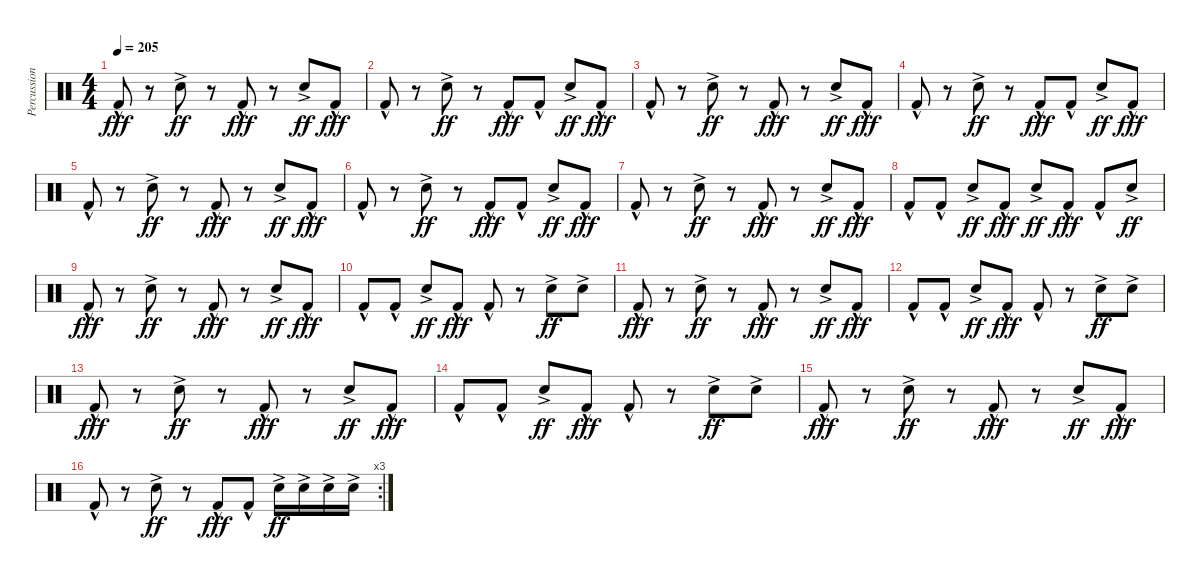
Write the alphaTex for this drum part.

\track ("Percussion" "Percussion") {instrument percussion}
\staff {score}
\articulation defaults
\ts (4 4)
\tempo 205
\clef neutral
\ks c "Kick (hit) 2"{hac}.8{dy fff}
r.8 "Snare (hit) 2"{ac}.8{dy ff} r.8 "Kick (hit) 2"{hac}.8{dy fff} r.8 "Snare (hit) 2"{ac}.8{dy ff} "Kick (hit) 2"{hac}.8{dy fff} |
"Kick (hit) 2"{hac}.8 r.8 "Snare (hit) 2"{ac}.8{dy ff} r.8 "Kick (hit) 2"{hac}.8{dy fff} "Kick (hit) 2"{hac}.8 "Snare (hit) 2"{ac}.8{dy ff} "Kick (hit) 2"{hac}.8{dy fff} |
"Kick (hit) 2"{hac}.8 r.8 "Snare (hit) 2"{ac}.8{dy ff} r.8 "Kick (hit) 2"{hac}.8{dy fff} r.8 "Snare (hit) 2"{ac}.8{dy ff} "Kick (hit) 2"{hac}.8{dy fff} |
"Kick (hit) 2"{hac}.8 r.8 "Snare (hit) 2"{ac}.8{dy ff} r.8 "Kick (hit) 2"{hac}.8{dy fff} "Kick (hit) 2"{hac}.8 "Snare (hit) 2"{ac}.8{dy ff} "Kick (hit) 2"{hac}.8{dy fff} |
"Kick (hit) 2"{hac}.8 r.8 "Snare (hit) 2"{ac}.8{dy ff} r.8 "Kick (hit) 2"{hac}.8{dy fff} r.8 "Snare (hit) 2"{ac}.8{dy ff} "Kick (hit) 2"{hac}.8{dy fff} |
"Kick (hit) 2"{hac}.8 r.8 "Snare (hit) 2"{ac}.8{dy ff} r.8 "Kick (hit) 2"{hac}.8{dy fff} "Kick (hit) 2"{hac}.8 "Snare (hit) 2"{ac}.8{dy ff} "Kick (hit) 2"{hac}.8{dy fff} |
"Kick (hit) 2"{hac}.8 r.8 "Snare (hit) 2"{ac}.8{dy ff} r.8 "Kick (hit) 2"{hac}.8{dy fff} r.8 "Snare (hit) 2"{ac}.8{dy ff} "Kick (hit) 2"{hac}.8{dy fff} |
"Kick (hit) 2"{hac}.8 "Kick (hit) 2"{hac}.8 "Snare (hit) 2"{ac}.8{dy ff} "Kick (hit) 2"{hac}.8{dy fff} "Snare (hit) 2"{ac}.8{dy ff} "Kick (hit) 2"{hac}.8{dy fff} "Kick (hit) 2"{hac}.8 "Snare (hit) 2"{ac}.8{dy ff} |
"Kick (hit) 2"{hac}.8{dy fff} r.8 "Snare (hit) 2"{ac}.8{dy ff} r.8 "Kick (hit) 2"{hac}.8{dy fff} r.8 "Snare (hit) 2"{ac}.8{dy ff} "Kick (hit) 2"{hac}.8{dy fff} |
"Kick (hit) 2"{hac}.8 "Kick (hit) 2"{hac}.8 "Snare (hit) 2"{ac}.8{dy ff} "Kick (hit) 2"{hac}.8{dy fff} "Kick (hit) 2"{hac}.8 r.8 "Snare (hit) 2"{ac}.8{dy ff} "Snare (hit) 2"{ac}.8 |
"Kick (hit) 2"{hac}.8{dy fff} r.8 "Snare (hit) 2"{ac}.8{dy ff} r.8 "Kick (hit) 2"{hac}.8{dy fff} r.8 "Snare (hit) 2"{ac}.8{dy ff} "Kick (hit) 2"{hac}.8{dy fff} |
"Kick (hit) 2"{hac}.8 "Kick (hit) 2"{hac}.8 "Snare (hit) 2"{ac}.8{dy ff} "Kick (hit) 2"{hac}.8{dy fff} "Kick (hit) 2"{hac}.8 r.8 "Snare (hit) 2"{ac}.8{dy ff} "Snare (hit) 2"{ac}.8 |
"Kick (hit) 2"{hac}.8{dy fff} r.8 "Snare (hit) 2"{ac}.8{dy ff} r.8 "Kick (hit) 2"{hac}.8{dy fff} r.8 "Snare (hit) 2"{ac}.8{dy ff} "Kick (hit) 2"{hac}.8{dy fff} |
"Kick (hit) 2"{hac}.8 "Kick (hit) 2"{hac}.8 "Snare (hit) 2"{ac}.8{dy ff} "Kick (hit) 2"{hac}.8{dy fff} "Kick (hit) 2"{hac}.8 r.8 "Snare (hit) 2"{ac}.8{dy ff} "Snare (hit) 2"{ac}.8 |
"Kick (hit) 2"{hac}.8{dy fff} r.8 "Snare (hit) 2"{ac}.8{dy ff} r.8 "Kick (hit) 2"{hac}.8{dy fff} r.8 "Snare (hit) 2"{ac}.8{dy ff} "Kick (hit) 2"{hac}.8{dy fff} |
\rc 3 "Kick (hit) 2"{hac}.8
r.8 "Snare (hit) 2"{ac}.8{dy ff} r.8 "Kick (hit) 2"{hac}.8{dy fff} "Kick (hit) 2"{hac}.8 "Snare (hit) 2"{ac}.16{dy ff} "Snare (hit) 2"{ac}.16 "Snare (hit) 2"{ac}.16 "Snare (hit) 2"{ac}.16
